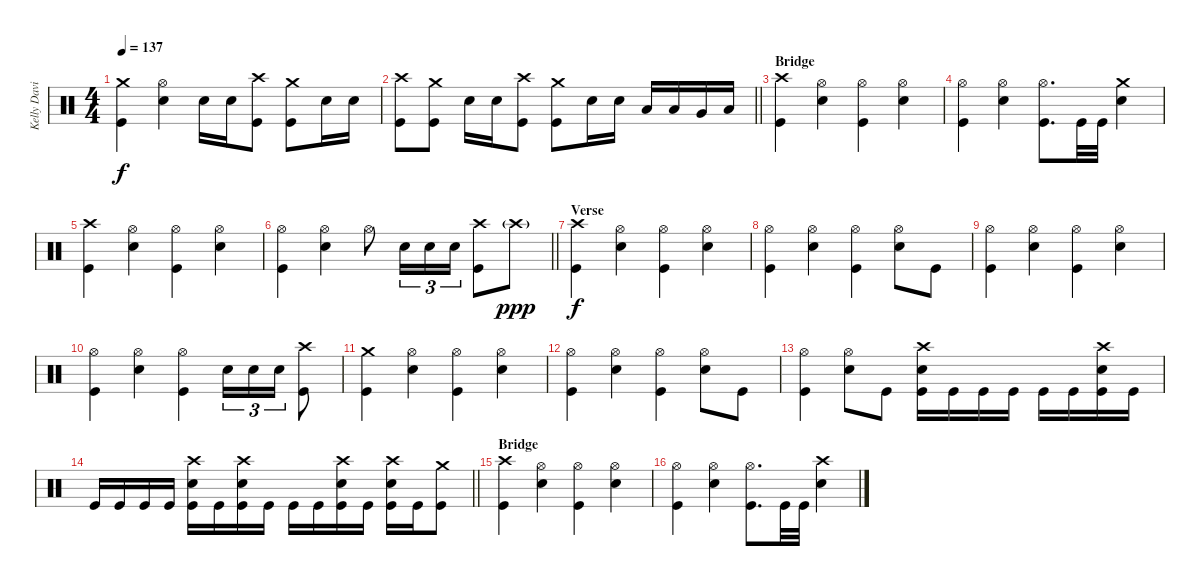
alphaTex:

\track ("Kelly David Smith" "Kelly Davi") {instrument percussion}
\staff {score}
\articulation defaults
\ts (4 4)
\tempo 137
\clef neutral
\ks c
("Crash medium (hit)" "Kick (hit)").4{dy f} ("Hi-Hat (open)" "Electric Snare (hit)").4 "Electric Snare (hit)".16 "Electric Snare (hit)".16 ("Crash high (hit)" "Kick (hit)").8 ("Crash medium (hit)" "Kick (hit)").8 "Electric Snare (hit)".16 "Electric Snare (hit)".16 |
\barLineRight lightlight
("Crash high (hit)" "Kick (hit)").8 ("Crash medium (hit)" "Kick (hit)").8 "Electric Snare (hit)".16 "Electric Snare (hit)".16 ("Crash high (hit)" "Kick (hit)").8 ("Crash medium (hit)" "Kick (hit)").8 "Electric Snare (hit)".16 "Electric Snare (hit)".16 "Low Tom (hit)".16 "Low Tom (hit)".16 "Very Low Tom (hit)".16 "Low Floor Tom (hit)".16 |
\section ("" "Bridge")
("Crash high (hit)" "Kick (hit)").4 ("Hi-Hat (open)" "Electric Snare (hit)").4 ("Hi-Hat (open)" "Kick (hit)").4 ("Hi-Hat (open)" "Electric Snare (hit)").4 |
("Hi-Hat (open)" "Kick (hit)").4 ("Hi-Hat (open)" "Electric Snare (hit)").4 ("Hi-Hat (open)" "Kick (hit)").8{d} "Kick (hit)".32 "Kick (hit)".32 ("Crash medium (hit)" "Electric Snare (hit)").4 |
("Crash high (hit)" "Kick (hit)").4 ("Hi-Hat (open)" "Electric Snare (hit)").4 ("Hi-Hat (open)" "Kick (hit)").4 ("Hi-Hat (open)" "Electric Snare (hit)").4 |
\barLineRight lightlight
("Hi-Hat (open)" "Kick (hit)").4 ("Hi-Hat (open)" "Electric Snare (hit)").4 "Hi-Hat (open)".8 "Electric Snare (hit)".16{tu (3 2)} "Electric Snare (hit)".16{tu (3 2)} "Electric Snare (hit)".16{tu (3 2)} ("Crash high (hit)" "Kick (hit)").8 "Crash high (hit)"{g}.8{dy ppp} |
\section ("" "Verse")
("Crash high (hit)" "Kick (hit)").4{dy f} ("Hi-Hat (open)" "Electric Snare (hit)").4 ("Hi-Hat (open)" "Kick (hit)").4 ("Hi-Hat (open)" "Electric Snare (hit)").4 |
("Hi-Hat (open)" "Kick (hit)").4 ("Hi-Hat (open)" "Electric Snare (hit)").4 ("Hi-Hat (open)" "Kick (hit)").4 ("Hi-Hat (open)" "Electric Snare (hit)").8 "Kick (hit)".8 |
("Hi-Hat (open)" "Kick (hit)").4 ("Hi-Hat (open)" "Electric Snare (hit)").4 ("Hi-Hat (open)" "Kick (hit)").4 ("Hi-Hat (open)" "Electric Snare (hit)").4 |
("Hi-Hat (open)" "Kick (hit)").4 ("Hi-Hat (open)" "Electric Snare (hit)").4 ("Hi-Hat (open)" "Kick (hit)").4 "Electric Snare (hit)".16{tu (3 2)} "Electric Snare (hit)".16{tu (3 2)} "Electric Snare (hit)".16{tu (3 2)} ("Crash high (hit)" "Kick (hit)").8 |
("Crash medium (hit)" "Kick (hit)").4 ("Hi-Hat (open)" "Electric Snare (hit)").4 ("Hi-Hat (open)" "Kick (hit)").4 ("Hi-Hat (open)" "Electric Snare (hit)").4 |
("Hi-Hat (open)" "Kick (hit)").4 ("Hi-Hat (open)" "Electric Snare (hit)").4 ("Hi-Hat (open)" "Kick (hit)").4 ("Hi-Hat (open)" "Electric Snare (hit)").8 "Kick (hit)".8 |
("Hi-Hat (open)" "Kick (hit)").4 ("Hi-Hat (open)" "Electric Snare (hit)").8 "Kick (hit)".8 ("Crash high (hit)" "Electric Snare (hit)" "Kick (hit)").16 "Kick (hit)".16 "Kick (hit)".16 "Kick (hit)".16 "Kick (hit)".16 "Kick (hit)".16 ("Crash high (hit)" "Electric Snare (hit)" "Kick (hit)").16 "Kick (hit)".16 |
\barLineRight lightlight "Kick (hit)".16 "Kick (hit)".16 "Kick (hit)".16 "Kick (hit)".16
("Crash high (hit)" "Electric Snare (hit)" "Kick (hit)").16 "Kick (hit)".16 ("Crash high (hit)" "Electric Snare (hit)" "Kick (hit)").16 "Kick (hit)".16 "Kick (hit)".16 "Kick (hit)".16 ("Crash high (hit)" "Electric Snare (hit)" "Kick (hit)").16 "Kick (hit)".16 ("Crash high (hit)" "Electric Snare (hit)" "Kick (hit)").16 "Kick (hit)".16 ("Crash medium (hit)" "Kick (hit)").8 |
\section ("" "Bridge")
("Crash high (hit)" "Kick (hit)").4 ("Hi-Hat (open)" "Electric Snare (hit)").4 ("Hi-Hat (open)" "Kick (hit)").4 ("Hi-Hat (open)" "Electric Snare (hit)").4 |
("Hi-Hat (open)" "Kick (hit)").4 ("Hi-Hat (open)" "Electric Snare (hit)").4 ("Hi-Hat (open)" "Kick (hit)").8{d} "Kick (hit)".32 "Kick (hit)".32 ("Crash high (hit)" "Electric Snare (hit)").4
